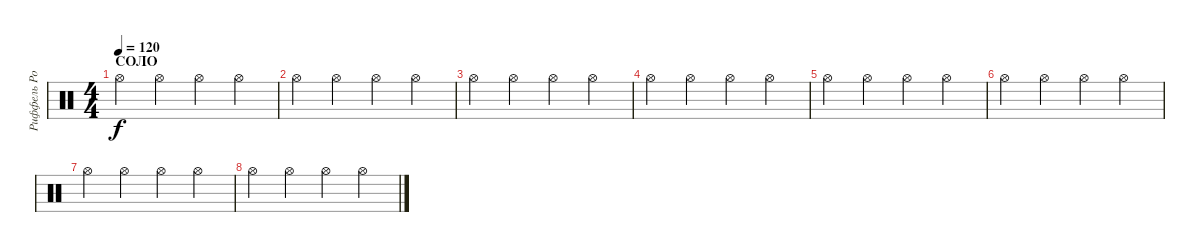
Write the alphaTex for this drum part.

\track ("Риффель Роман(хэты)" "Риффель Ро") {instrument percussion}
\staff {score}
\articulation defaults
\ts (4 4)
\section ("" "СОЛО")
\tempo 120
\clef neutral
\ks c "Hi-Hat (open)".4{dy f} "Hi-Hat (open)".4 "Hi-Hat (open)".4 "Hi-Hat (open)".4
|
"Hi-Hat (open)".4 "Hi-Hat (open)".4 "Hi-Hat (open)".4 "Hi-Hat (open)".4 |
"Hi-Hat (open)".4 "Hi-Hat (open)".4 "Hi-Hat (open)".4 "Hi-Hat (open)".4 |
"Hi-Hat (open)".4 "Hi-Hat (open)".4 "Hi-Hat (open)".4 "Hi-Hat (open)".4 |
"Hi-Hat (open)".4 "Hi-Hat (open)".4 "Hi-Hat (open)".4 "Hi-Hat (open)".4 |
"Hi-Hat (open)".4 "Hi-Hat (open)".4 "Hi-Hat (open)".4 "Hi-Hat (open)".4 |
"Hi-Hat (open)".4 "Hi-Hat (open)".4 "Hi-Hat (open)".4 "Hi-Hat (open)".4 |
"Hi-Hat (open)".4 "Hi-Hat (open)".4 "Hi-Hat (open)".4 "Hi-Hat (open)".4
